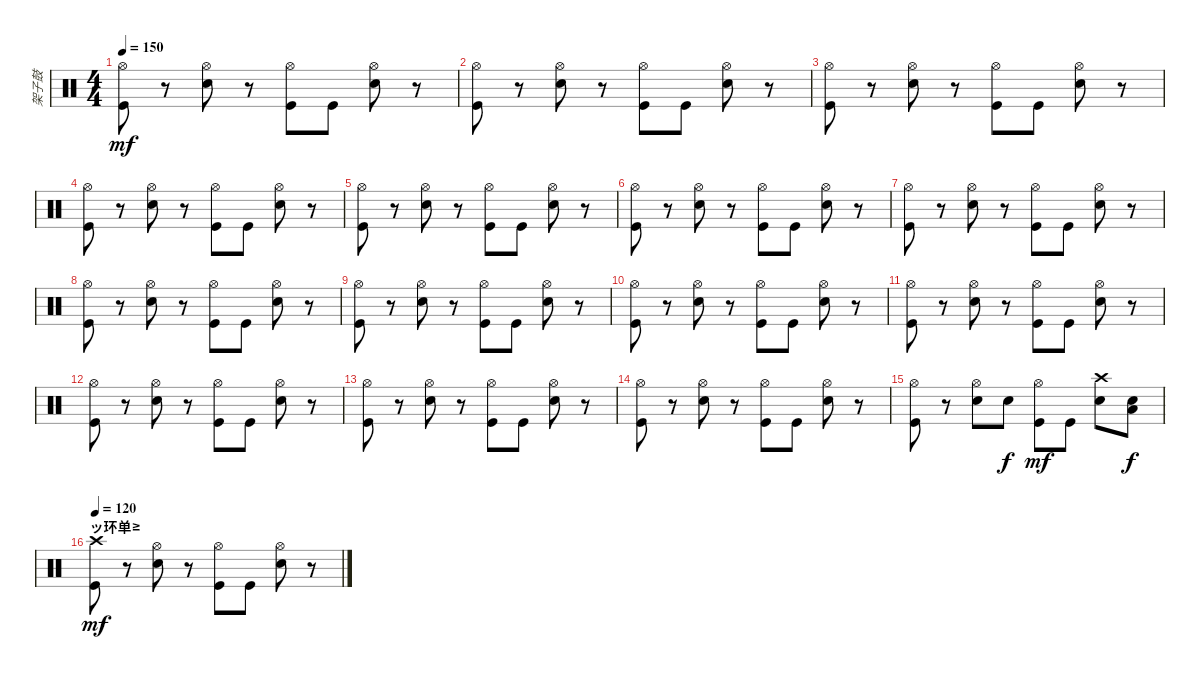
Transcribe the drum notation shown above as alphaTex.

\track ("架子鼓" "架子鼓") {instrument percussion}
\staff {score}
\articulation defaults
\ts (4 4)
\tempo 150
\clef neutral
\ks c
("Hi-Hat (open)" "Kick (hit)").8{dy mf} r.8 ("Hi-Hat (open)" "Snare (hit) 2").8 r.8 ("Hi-Hat (open)" "Kick (hit)").8 "Kick (hit)".8 ("Hi-Hat (open)" "Snare (hit) 2").8 r.8 |
("Hi-Hat (open)" "Kick (hit)").8 r.8 ("Hi-Hat (open)" "Snare (hit) 2").8 r.8 ("Hi-Hat (open)" "Kick (hit)").8 "Kick (hit)".8 ("Hi-Hat (open)" "Snare (hit) 2").8 r.8 |
("Hi-Hat (open)" "Kick (hit)").8 r.8 ("Hi-Hat (open)" "Snare (hit) 2").8 r.8 ("Hi-Hat (open)" "Kick (hit)").8 "Kick (hit)".8 ("Hi-Hat (open)" "Snare (hit) 2").8 r.8 |
("Hi-Hat (open)" "Kick (hit)").8 r.8 ("Hi-Hat (open)" "Snare (hit) 2").8 r.8 ("Hi-Hat (open)" "Kick (hit)").8 "Kick (hit)".8 ("Hi-Hat (open)" "Snare (hit) 2").8 r.8 |
("Hi-Hat (open)" "Kick (hit)").8 r.8 ("Hi-Hat (open)" "Snare (hit) 2").8 r.8 ("Hi-Hat (open)" "Kick (hit)").8 "Kick (hit)".8 ("Hi-Hat (open)" "Snare (hit) 2").8 r.8 |
("Hi-Hat (open)" "Kick (hit)").8 r.8 ("Hi-Hat (open)" "Snare (hit) 2").8 r.8 ("Hi-Hat (open)" "Kick (hit)").8 "Kick (hit)".8 ("Hi-Hat (open)" "Snare (hit) 2").8 r.8 |
("Hi-Hat (open)" "Kick (hit)").8 r.8 ("Hi-Hat (open)" "Snare (hit) 2").8 r.8 ("Hi-Hat (open)" "Kick (hit)").8 "Kick (hit)".8 ("Hi-Hat (open)" "Snare (hit) 2").8 r.8 |
("Hi-Hat (open)" "Kick (hit)").8 r.8 ("Hi-Hat (open)" "Snare (hit) 2").8 r.8 ("Hi-Hat (open)" "Kick (hit)").8 "Kick (hit)".8 ("Hi-Hat (open)" "Snare (hit) 2").8 r.8 |
("Hi-Hat (open)" "Kick (hit)").8 r.8 ("Hi-Hat (open)" "Snare (hit) 2").8 r.8 ("Hi-Hat (open)" "Kick (hit)").8 "Kick (hit)".8 ("Hi-Hat (open)" "Snare (hit) 2").8 r.8 |
("Hi-Hat (open)" "Kick (hit)").8 r.8 ("Hi-Hat (open)" "Snare (hit) 2").8 r.8 ("Hi-Hat (open)" "Kick (hit)").8 "Kick (hit)".8 ("Hi-Hat (open)" "Snare (hit) 2").8 r.8 |
("Hi-Hat (open)" "Kick (hit)").8 r.8 ("Hi-Hat (open)" "Snare (hit) 2").8 r.8 ("Hi-Hat (open)" "Kick (hit)").8 "Kick (hit)".8 ("Hi-Hat (open)" "Snare (hit) 2").8 r.8 |
("Hi-Hat (open)" "Kick (hit)").8 r.8 ("Hi-Hat (open)" "Snare (hit) 2").8 r.8 ("Hi-Hat (open)" "Kick (hit)").8 "Kick (hit)".8 ("Hi-Hat (open)" "Snare (hit) 2").8 r.8 |
("Hi-Hat (open)" "Kick (hit)").8 r.8 ("Hi-Hat (open)" "Snare (hit) 2").8 r.8 ("Hi-Hat (open)" "Kick (hit)").8 "Kick (hit)".8 ("Hi-Hat (open)" "Snare (hit) 2").8 r.8 |
("Hi-Hat (open)" "Kick (hit)").8 r.8 ("Hi-Hat (open)" "Snare (hit) 2").8 r.8 ("Hi-Hat (open)" "Kick (hit)").8 "Kick (hit)".8 ("Hi-Hat (open)" "Snare (hit) 2").8 r.8 |
("Hi-Hat (open)" "Kick (hit)").8 r.8 ("Hi-Hat (open)" "Snare (hit) 2").8 "Snare (hit) 2".8{dy f} ("Hi-Hat (open)" "Kick (hit)").8{dy mf} "Kick (hit)".8 ("Crash high (hit)" "Snare (hit) 2").8 ("Snare (hit) 2" "Low Tom (hit)").8{dy f} |
\section ("" "ッ环单")
\tempo 120
("Crash high (hit)" "Kick (hit)").8{dy mf} r.8 ("Hi-Hat (open)" "Snare (hit) 2").8 r.8 ("Hi-Hat (open)" "Kick (hit)").8 "Kick (hit)".8 ("Hi-Hat (open)" "Snare (hit) 2").8 r.8
